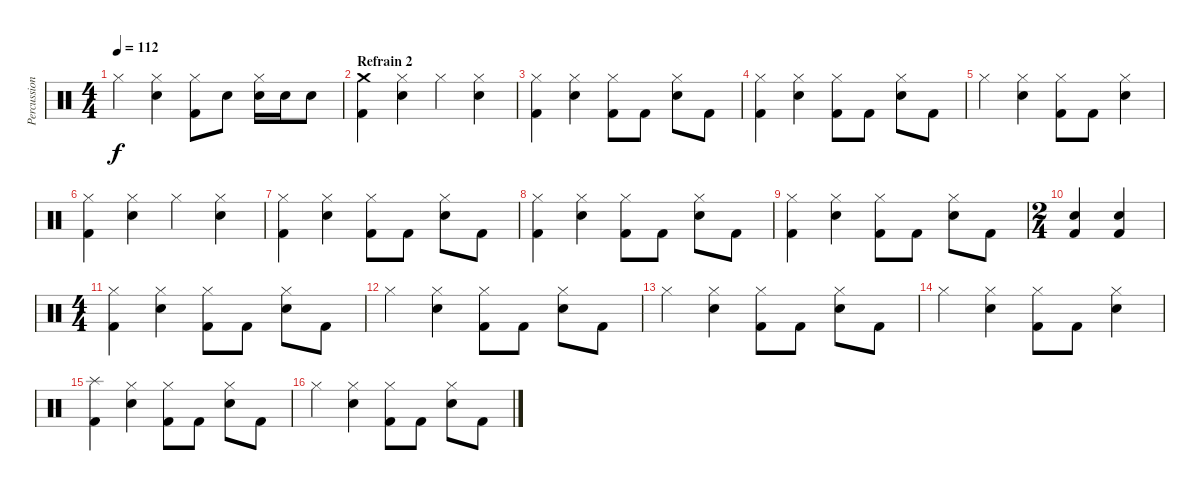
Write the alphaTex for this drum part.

\track ("Percussions" "Percussion") {instrument percussion}
\staff {score}
\articulation defaults
\ts (4 4)
\tempo 112
\clef neutral
\ks c "Hi-Hat (closed)".4{dy f}
("Hi-Hat (closed)" "Snare (hit) 2").4 ("Hi-Hat (closed)" "Kick (hit) 2").8 "Snare (hit) 2".8 ("Hi-Hat (closed)" "Snare (hit) 2").16 "Snare (hit) 2".16 "Snare (hit) 2".8 |
\section ("" "Refrain 2")
("Crash medium (hit)" "Kick (hit) 2").4 ("Hi-Hat (closed)" "Snare (hit) 2").4 "Hi-Hat (closed)".4 ("Hi-Hat (closed)" "Snare (hit) 2").4 |
("Hi-Hat (closed)" "Kick (hit) 2").4 ("Hi-Hat (closed)" "Snare (hit) 2").4 ("Hi-Hat (closed)" "Kick (hit) 2").8 "Kick (hit) 2".8 ("Hi-Hat (closed)" "Snare (hit) 2").8 "Kick (hit) 2".8 |
("Hi-Hat (closed)" "Kick (hit) 2").4 ("Hi-Hat (closed)" "Snare (hit) 2").4 ("Hi-Hat (closed)" "Kick (hit) 2").8 "Kick (hit) 2".8 ("Hi-Hat (closed)" "Snare (hit) 2").8 "Kick (hit) 2".8 |
"Hi-Hat (closed)".4 ("Hi-Hat (closed)" "Snare (hit) 2").4 ("Hi-Hat (closed)" "Kick (hit) 2").8 "Kick (hit) 2".8 ("Hi-Hat (closed)" "Snare (hit) 2").4 |
("Hi-Hat (closed)" "Kick (hit) 2").4 ("Hi-Hat (closed)" "Snare (hit) 2").4 "Hi-Hat (closed)".4 ("Hi-Hat (closed)" "Snare (hit) 2").4 |
("Hi-Hat (closed)" "Kick (hit) 2").4 ("Hi-Hat (closed)" "Snare (hit) 2").4 ("Hi-Hat (closed)" "Kick (hit) 2").8 "Kick (hit) 2".8 ("Hi-Hat (closed)" "Snare (hit) 2").8 "Kick (hit) 2".8 |
("Hi-Hat (closed)" "Kick (hit) 2").4 ("Hi-Hat (closed)" "Snare (hit) 2").4 ("Hi-Hat (closed)" "Kick (hit) 2").8 "Kick (hit) 2".8 ("Hi-Hat (closed)" "Snare (hit) 2").8 "Kick (hit) 2".8 |
("Hi-Hat (closed)" "Kick (hit) 2").4 ("Hi-Hat (closed)" "Snare (hit) 2").4 ("Hi-Hat (closed)" "Kick (hit) 2").8 "Kick (hit) 2".8 ("Hi-Hat (closed)" "Snare (hit) 2").8 "Kick (hit) 2".8 |
\ts (2 4)
("Snare (hit) 2" "Kick (hit) 2").4 ("Snare (hit) 2" "Kick (hit) 2").4 |
\ts (4 4)
("Hi-Hat (closed)" "Kick (hit) 2").4 ("Hi-Hat (closed)" "Snare (hit) 2").4 ("Hi-Hat (closed)" "Kick (hit) 2").8 "Kick (hit) 2".8 ("Hi-Hat (closed)" "Snare (hit) 2").8 "Kick (hit) 2".8 |
"Hi-Hat (closed)".4 ("Hi-Hat (closed)" "Snare (hit) 2").4 ("Hi-Hat (closed)" "Kick (hit) 2").8 "Kick (hit) 2".8 ("Hi-Hat (closed)" "Snare (hit) 2").8 "Kick (hit) 2".8 |
"Hi-Hat (closed)".4 ("Hi-Hat (closed)" "Snare (hit) 2").4 ("Hi-Hat (closed)" "Kick (hit) 2").8 "Kick (hit) 2".8 ("Hi-Hat (closed)" "Snare (hit) 2").8 "Kick (hit) 2".8 |
"Hi-Hat (closed)".4 ("Hi-Hat (closed)" "Snare (hit) 2").4 ("Hi-Hat (closed)" "Kick (hit) 2").8 "Kick (hit) 2".8 ("Hi-Hat (closed)" "Snare (hit) 2").4 |
("Splash (hit)" "Kick (hit) 2").4 ("Hi-Hat (closed)" "Snare (hit) 2").4 ("Hi-Hat (closed)" "Kick (hit) 2").8 "Kick (hit) 2".8 ("Hi-Hat (closed)" "Snare (hit) 2").8 "Kick (hit) 2".8 |
"Hi-Hat (closed)".4 ("Hi-Hat (closed)" "Snare (hit) 2").4 ("Hi-Hat (closed)" "Kick (hit) 2").8 "Kick (hit) 2".8 ("Hi-Hat (closed)" "Snare (hit) 2").8 "Kick (hit) 2".8
